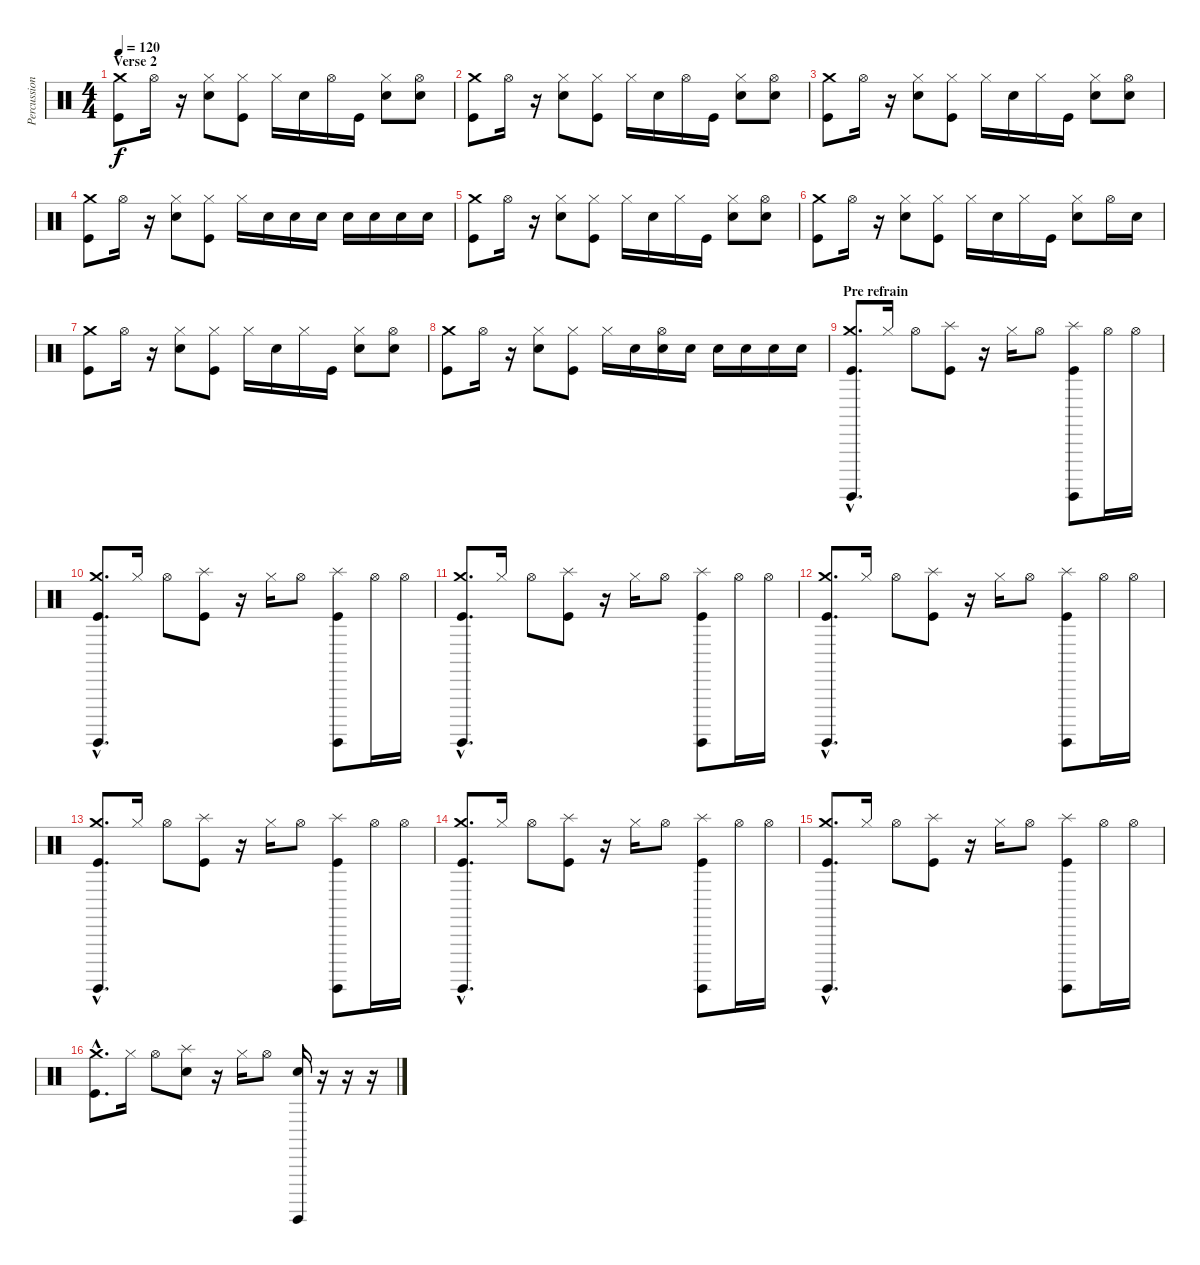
\track ("Percussions" "Percussion") {instrument percussion}
\staff {score}
\articulation defaults
\ts (4 4)
\section ("" "Verse 2")
\tempo 120
\clef neutral
\ks c
("Crash medium (hit)" "Kick (hit)").8{dy f} "Hi-Hat (open)".16 r.16 ("Hi-Hat (closed)" "Electric Snare (hit)").8 ("Hi-Hat (closed)" "Kick (hit)").8 "Hi-Hat (closed)".16 "Electric Snare (hit)".16 "Hi-Hat (open)".16 "Kick (hit)".16 ("Hi-Hat (closed)" "Electric Snare (hit)").8 ("Hi-Hat (open)" "Electric Snare (hit)").8 |
("Crash medium (hit)" "Kick (hit)").8 "Hi-Hat (open)".16 r.16 ("Hi-Hat (closed)" "Electric Snare (hit)").8 ("Hi-Hat (closed)" "Kick (hit)").8 "Hi-Hat (closed)".16 "Electric Snare (hit)".16 "Hi-Hat (open)".16 "Kick (hit)".16 ("Hi-Hat (closed)" "Electric Snare (hit)").8 ("Hi-Hat (open)" "Electric Snare (hit)").8 |
("Crash medium (hit)" "Kick (hit)").8 "Hi-Hat (open)".16 r.16 ("Hi-Hat (closed)" "Electric Snare (hit)").8 ("Hi-Hat (closed)" "Kick (hit)").8 "Hi-Hat (closed)".16 "Electric Snare (hit)".16 "Hi-Hat (closed)".16 "Kick (hit)".16 ("Hi-Hat (closed)" "Electric Snare (hit)").8 ("Hi-Hat (open)" "Electric Snare (hit)").8 |
("Crash medium (hit)" "Kick (hit)").8 "Hi-Hat (open)".16 r.16 ("Hi-Hat (closed)" "Electric Snare (hit)").8 ("Hi-Hat (closed)" "Kick (hit)").8 "Hi-Hat (closed)".16 "Electric Snare (hit)".16 "Electric Snare (hit)".16 "Electric Snare (hit)".16 "Electric Snare (hit)".16 "Electric Snare (hit)".16 "Electric Snare (hit)".16 "Electric Snare (hit)".16 |
("Crash medium (hit)" "Kick (hit)").8 "Hi-Hat (open)".16 r.16 ("Hi-Hat (closed)" "Electric Snare (hit)").8 ("Hi-Hat (closed)" "Kick (hit)").8 "Hi-Hat (closed)".16 "Electric Snare (hit)".16 "Hi-Hat (closed)".16 "Kick (hit)".16 ("Hi-Hat (closed)" "Electric Snare (hit)").8 ("Hi-Hat (open)" "Electric Snare (hit)").8 |
("Crash medium (hit)" "Kick (hit)").8 "Hi-Hat (open)".16 r.16 ("Hi-Hat (closed)" "Electric Snare (hit)").8 ("Hi-Hat (closed)" "Kick (hit)").8 "Hi-Hat (closed)".16 "Electric Snare (hit)".16 "Hi-Hat (closed)".16 "Kick (hit)".16 ("Hi-Hat (closed)" "Electric Snare (hit)").8 "Hi-Hat (open)".16 "Electric Snare (hit)".16 |
("Crash medium (hit)" "Kick (hit)").8 "Hi-Hat (open)".16 r.16 ("Hi-Hat (closed)" "Electric Snare (hit)").8 ("Hi-Hat (closed)" "Kick (hit)").8 "Hi-Hat (closed)".16 "Electric Snare (hit)".16 "Hi-Hat (closed)".16 "Kick (hit)".16 ("Hi-Hat (closed)" "Electric Snare (hit)").8 ("Hi-Hat (open)" "Electric Snare (hit)").8 |
("Crash medium (hit)" "Kick (hit)").8 "Hi-Hat (open)".16 r.16 ("Hi-Hat (closed)" "Electric Snare (hit)").8 ("Hi-Hat (closed)" "Kick (hit)").8 "Hi-Hat (closed)".16 "Electric Snare (hit)".16 ("Hi-Hat (open)" "Electric Snare (hit)").16 "Electric Snare (hit)".16 "Electric Snare (hit)".16 "Electric Snare (hit)".16 "Electric Snare (hit)".16 "Electric Snare (hit)".16 |
\section ("" "Pre refrain")
("Crash medium (hit)"{hac} "Kick (hit)"{hac} "Surdo (hit)"{hac}).8{d} "Hi-Hat (closed)".16 "Hi-Hat (open)".8 ("Splash (hit)" "Kick (hit)").8 r.16 "Hi-Hat (closed)".16 "Hi-Hat (open)".8 ("Splash (hit)" "Kick (hit)" "Surdo (hit)").8 "Hi-Hat (open)".16 "Hi-Hat (open)".16 |
("Crash medium (hit)"{hac} "Kick (hit)"{hac} "Surdo (hit)"{hac}).8{d} "Hi-Hat (closed)".16 "Hi-Hat (open)".8 ("Splash (hit)" "Kick (hit)").8 r.16 "Hi-Hat (closed)".16 "Hi-Hat (open)".8 ("Splash (hit)" "Kick (hit)" "Surdo (hit)").8 "Hi-Hat (open)".16 "Hi-Hat (open)".16 |
("Crash medium (hit)"{hac} "Kick (hit)"{hac} "Surdo (hit)"{hac}).8{d} "Hi-Hat (closed)".16 "Hi-Hat (open)".8 ("Splash (hit)" "Kick (hit)").8 r.16 "Hi-Hat (closed)".16 "Hi-Hat (open)".8 ("Splash (hit)" "Kick (hit)" "Surdo (hit)").8 "Hi-Hat (open)".16 "Hi-Hat (open)".16 |
("Crash medium (hit)"{hac} "Kick (hit)"{hac} "Surdo (hit)"{hac}).8{d} "Hi-Hat (closed)".16 "Hi-Hat (open)".8 ("Splash (hit)" "Kick (hit)").8 r.16 "Hi-Hat (closed)".16 "Hi-Hat (open)".8 ("Splash (hit)" "Kick (hit)" "Surdo (hit)").8 "Hi-Hat (open)".16 "Hi-Hat (open)".16 |
("Crash medium (hit)"{hac} "Kick (hit)"{hac} "Surdo (hit)"{hac}).8{d} "Hi-Hat (closed)".16 "Hi-Hat (open)".8 ("Splash (hit)" "Kick (hit)").8 r.16 "Hi-Hat (closed)".16 "Hi-Hat (open)".8 ("Splash (hit)" "Kick (hit)" "Surdo (hit)").8 "Hi-Hat (open)".16 "Hi-Hat (open)".16 |
("Crash medium (hit)"{hac} "Kick (hit)"{hac} "Surdo (hit)"{hac}).8{d} "Hi-Hat (closed)".16 "Hi-Hat (open)".8 ("Splash (hit)" "Kick (hit)").8 r.16 "Hi-Hat (closed)".16 "Hi-Hat (open)".8 ("Splash (hit)" "Kick (hit)" "Surdo (hit)").8 "Hi-Hat (open)".16 "Hi-Hat (open)".16 |
("Crash medium (hit)"{hac} "Kick (hit)"{hac} "Surdo (hit)"{hac}).8{d} "Hi-Hat (closed)".16 "Hi-Hat (open)".8 ("Splash (hit)" "Kick (hit)").8 r.16 "Hi-Hat (closed)".16 "Hi-Hat (open)".8 ("Splash (hit)" "Kick (hit)" "Surdo (hit)").8 "Hi-Hat (open)".16 "Hi-Hat (open)".16 |
("Crash medium (hit)"{hac} "Kick (hit)"{hac}).8{d} "Hi-Hat (closed)".16 "Hi-Hat (open)".8 ("Splash (hit)" "Electric Snare (hit)").8 r.16 "Hi-Hat (closed)".16 "Hi-Hat (open)".8 ("Electric Snare (hit)" "Surdo (hit)").16 r.16 r.16 r.16
